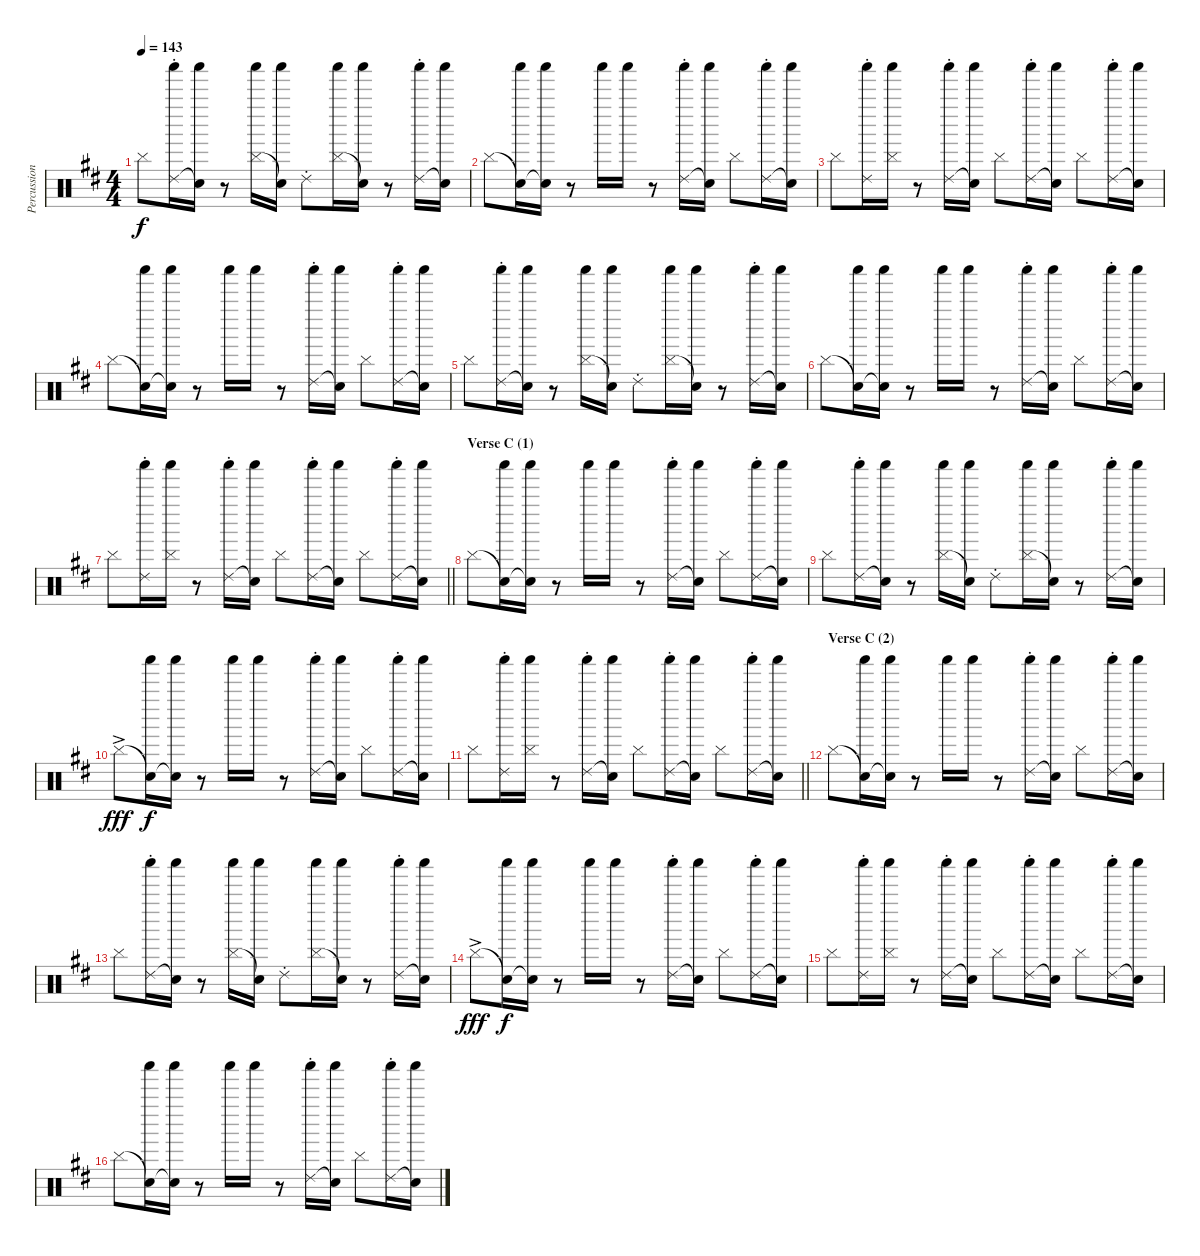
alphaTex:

\track ("Percussion" "Percussion") {instrument percussion}
\staff {score}
\articulation defaults
\ts (4 4)
\tempo 143
\clef neutral
\ks d "Cymbal (hit)".8{dy f}
("Ride (choke) 2" "Shaker (hit)").16 ("Snare (hit)"{t} "Shaker (hit)").16 r.8 ("Cymbal (hit)" "Shaker (hit)").16 ("Snare (hit)"{t} "Shaker (hit)").16 "Ride (choke) 2".8 ("Cymbal (hit)" "Shaker (hit)").16 ("Snare (hit)"{t} "Shaker (hit)").16 r.8 ("Ride (choke) 2" "Shaker (hit)").16 ("Snare (hit)"{t} "Shaker (hit)").16 |
"Cymbal (hit)".8 ("Snare (hit)"{t} "Shaker (hit)").16 ("Snare (hit)"{t} "Shaker (hit)").16 r.8 "Shaker (hit)".16 "Shaker (hit)".16 r.8 ("Ride (choke) 2" "Shaker (hit)").16 ("Snare (hit)"{t} "Shaker (hit)").16 "Cymbal (hit)".8 ("Ride (choke) 2" "Shaker (hit)").16 ("Snare (hit)"{t} "Shaker (hit)").16 |
"Cymbal (hit)".8 ("Ride (choke) 2" "Shaker (hit)").16 ("Cymbal (hit)" "Shaker (hit)").16 r.8 ("Ride (choke) 2" "Shaker (hit)").16 ("Snare (hit)"{t} "Shaker (hit)").16 "Cymbal (hit)".8 ("Ride (choke) 2" "Shaker (hit)").16 ("Snare (hit)"{t} "Shaker (hit)").16 "Cymbal (hit)".8 ("Ride (choke) 2" "Shaker (hit)").16 ("Snare (hit)"{t} "Shaker (hit)").16 |
"Cymbal (hit)".8 ("Snare (hit)"{t} "Shaker (hit)").16 ("Snare (hit)"{t} "Shaker (hit)").16 r.8 "Shaker (hit)".16 "Shaker (hit)".16 r.8 ("Ride (choke) 2" "Shaker (hit)").16 ("Snare (hit)"{t} "Shaker (hit)").16 "Cymbal (hit)".8 ("Ride (choke) 2" "Shaker (hit)").16 ("Snare (hit)"{t} "Shaker (hit)").16 |
"Cymbal (hit)".8 ("Ride (choke) 2" "Shaker (hit)").16 ("Snare (hit)"{t} "Shaker (hit)").16 r.8 ("Cymbal (hit)" "Shaker (hit)").16 ("Snare (hit)"{t} "Shaker (hit)").16 "Ride (choke) 2".8 ("Cymbal (hit)" "Shaker (hit)").16 ("Snare (hit)"{t} "Shaker (hit)").16 r.8 ("Ride (choke) 2" "Shaker (hit)").16 ("Snare (hit)"{t} "Shaker (hit)").16 |
"Cymbal (hit)".8 ("Snare (hit)"{t} "Shaker (hit)").16 ("Snare (hit)"{t} "Shaker (hit)").16 r.8 "Shaker (hit)".16 "Shaker (hit)".16 r.8 ("Ride (choke) 2" "Shaker (hit)").16 ("Snare (hit)"{t} "Shaker (hit)").16 "Cymbal (hit)".8 ("Ride (choke) 2" "Shaker (hit)").16 ("Snare (hit)"{t} "Shaker (hit)").16 |
\barLineRight lightlight "Cymbal (hit)".8
("Ride (choke) 2" "Shaker (hit)").16 ("Cymbal (hit)" "Shaker (hit)").16 r.8 ("Ride (choke) 2" "Shaker (hit)").16 ("Snare (hit)"{t} "Shaker (hit)").16 "Cymbal (hit)".8 ("Ride (choke) 2" "Shaker (hit)").16 ("Snare (hit)"{t} "Shaker (hit)").16 "Cymbal (hit)".8 ("Ride (choke) 2" "Shaker (hit)").16 ("Snare (hit)"{t} "Shaker (hit)").16 |
\section ("" "Verse C (1)")
"Cymbal (hit)".8 ("Snare (hit)"{t} "Shaker (hit)").16 ("Snare (hit)"{t} "Shaker (hit)").16 r.8 "Shaker (hit)".16 "Shaker (hit)".16 r.8 ("Ride (choke) 2" "Shaker (hit)").16 ("Snare (hit)"{t} "Shaker (hit)").16 "Cymbal (hit)".8 ("Ride (choke) 2" "Shaker (hit)").16 ("Snare (hit)"{t} "Shaker (hit)").16 |
"Cymbal (hit)".8 ("Ride (choke) 2" "Shaker (hit)").16 ("Snare (hit)"{t} "Shaker (hit)").16 r.8 ("Cymbal (hit)" "Shaker (hit)").16 ("Snare (hit)"{t} "Shaker (hit)").16 "Ride (choke) 2".8 ("Cymbal (hit)" "Shaker (hit)").16 ("Snare (hit)"{t} "Shaker (hit)").16 r.8 ("Ride (choke) 2" "Shaker (hit)").16 ("Snare (hit)"{t} "Shaker (hit)").16 |
"Cymbal (hit)"{ac}.8{dy fff} ("Snare (hit)"{t} "Shaker (hit)").16{dy f} ("Snare (hit)"{t} "Shaker (hit)").16 r.8 "Shaker (hit)".16 "Shaker (hit)".16 r.8 ("Ride (choke) 2" "Shaker (hit)").16 ("Snare (hit)"{t} "Shaker (hit)").16 "Cymbal (hit)".8 ("Ride (choke) 2" "Shaker (hit)").16 ("Snare (hit)"{t} "Shaker (hit)").16 |
\barLineRight lightlight "Cymbal (hit)".8
("Ride (choke) 2" "Shaker (hit)").16 ("Cymbal (hit)" "Shaker (hit)").16 r.8 ("Ride (choke) 2" "Shaker (hit)").16 ("Snare (hit)"{t} "Shaker (hit)").16 "Cymbal (hit)".8 ("Ride (choke) 2" "Shaker (hit)").16 ("Snare (hit)"{t} "Shaker (hit)").16 "Cymbal (hit)".8 ("Ride (choke) 2" "Shaker (hit)").16 ("Snare (hit)"{t} "Shaker (hit)").16 |
\section ("" "Verse C (2)")
"Cymbal (hit)".8 ("Snare (hit)"{t} "Shaker (hit)").16 ("Snare (hit)"{t} "Shaker (hit)").16 r.8 "Shaker (hit)".16 "Shaker (hit)".16 r.8 ("Ride (choke) 2" "Shaker (hit)").16 ("Snare (hit)"{t} "Shaker (hit)").16 "Cymbal (hit)".8 ("Ride (choke) 2" "Shaker (hit)").16 ("Snare (hit)"{t} "Shaker (hit)").16 |
"Cymbal (hit)".8 ("Ride (choke) 2" "Shaker (hit)").16 ("Snare (hit)"{t} "Shaker (hit)").16 r.8 ("Cymbal (hit)" "Shaker (hit)").16 ("Snare (hit)"{t} "Shaker (hit)").16 "Ride (choke) 2".8 ("Cymbal (hit)" "Shaker (hit)").16 ("Snare (hit)"{t} "Shaker (hit)").16 r.8 ("Ride (choke) 2" "Shaker (hit)").16 ("Snare (hit)"{t} "Shaker (hit)").16 |
"Cymbal (hit)"{ac}.8{dy fff} ("Snare (hit)"{t} "Shaker (hit)").16{dy f} ("Snare (hit)"{t} "Shaker (hit)").16 r.8 "Shaker (hit)".16 "Shaker (hit)".16 r.8 ("Ride (choke) 2" "Shaker (hit)").16 ("Snare (hit)"{t} "Shaker (hit)").16 "Cymbal (hit)".8 ("Ride (choke) 2" "Shaker (hit)").16 ("Snare (hit)"{t} "Shaker (hit)").16 |
"Cymbal (hit)".8 ("Ride (choke) 2" "Shaker (hit)").16 ("Cymbal (hit)" "Shaker (hit)").16 r.8 ("Ride (choke) 2" "Shaker (hit)").16 ("Snare (hit)"{t} "Shaker (hit)").16 "Cymbal (hit)".8 ("Ride (choke) 2" "Shaker (hit)").16 ("Snare (hit)"{t} "Shaker (hit)").16 "Cymbal (hit)".8 ("Ride (choke) 2" "Shaker (hit)").16 ("Snare (hit)"{t} "Shaker (hit)").16 |
"Cymbal (hit)".8 ("Snare (hit)"{t} "Shaker (hit)").16 ("Snare (hit)"{t} "Shaker (hit)").16 r.8 "Shaker (hit)".16 "Shaker (hit)".16 r.8 ("Ride (choke) 2" "Shaker (hit)").16 ("Snare (hit)"{t} "Shaker (hit)").16 "Cymbal (hit)".8 ("Ride (choke) 2" "Shaker (hit)").16 ("Snare (hit)"{t} "Shaker (hit)").16
